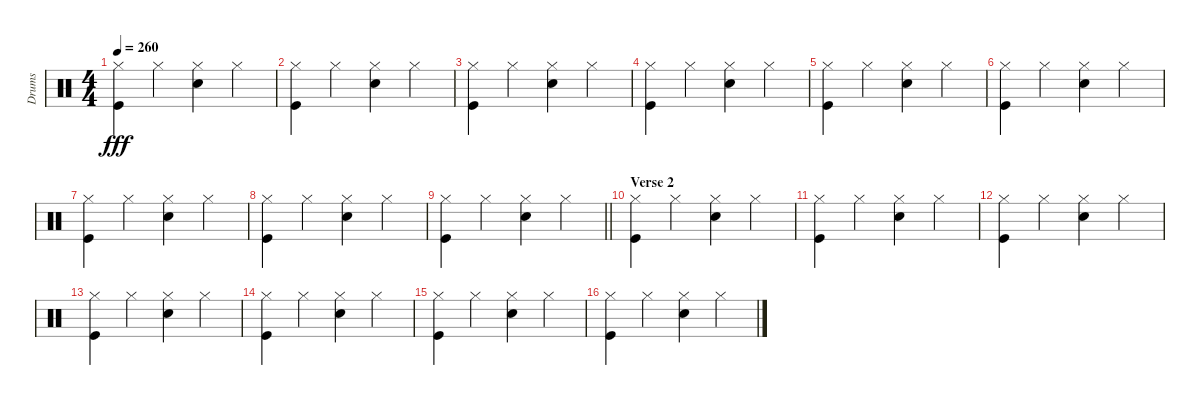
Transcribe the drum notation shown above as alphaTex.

\track ("Drums" "Drums") {instrument percussion}
\staff {score}
\articulation defaults
\ts (4 4)
\tempo 260
\clef neutral
\ks c
("Hi-Hat (closed)" "Kick (hit)").4{dy fff} "Hi-Hat (closed)".4 ("Hi-Hat (closed)" "Snare (hit) 2").4 "Hi-Hat (closed)".4 |
("Hi-Hat (closed)" "Kick (hit)").4 "Hi-Hat (closed)".4 ("Hi-Hat (closed)" "Snare (hit) 2").4 "Hi-Hat (closed)".4 |
("Hi-Hat (closed)" "Kick (hit)").4 "Hi-Hat (closed)".4 ("Hi-Hat (closed)" "Snare (hit) 2").4 "Hi-Hat (closed)".4 |
("Hi-Hat (closed)" "Kick (hit)").4 "Hi-Hat (closed)".4 ("Hi-Hat (closed)" "Snare (hit) 2").4 "Hi-Hat (closed)".4 |
("Hi-Hat (closed)" "Kick (hit)").4 "Hi-Hat (closed)".4 ("Hi-Hat (closed)" "Snare (hit) 2").4 "Hi-Hat (closed)".4 |
("Hi-Hat (closed)" "Kick (hit)").4 "Hi-Hat (closed)".4 ("Hi-Hat (closed)" "Snare (hit) 2").4 "Hi-Hat (closed)".4 |
("Hi-Hat (closed)" "Kick (hit)").4 "Hi-Hat (closed)".4 ("Hi-Hat (closed)" "Snare (hit) 2").4 "Hi-Hat (closed)".4 |
("Hi-Hat (closed)" "Kick (hit)").4 "Hi-Hat (closed)".4 ("Hi-Hat (closed)" "Snare (hit) 2").4 "Hi-Hat (closed)".4 |
\barLineRight lightlight
("Hi-Hat (closed)" "Kick (hit)").4 "Hi-Hat (closed)".4 ("Hi-Hat (closed)" "Snare (hit) 2").4 "Hi-Hat (closed)".4 |
\section ("" "Verse 2")
("Hi-Hat (closed)" "Kick (hit)").4 "Hi-Hat (closed)".4 ("Hi-Hat (closed)" "Snare (hit) 2").4 "Hi-Hat (closed)".4 |
("Hi-Hat (closed)" "Kick (hit)").4 "Hi-Hat (closed)".4 ("Hi-Hat (closed)" "Snare (hit) 2").4 "Hi-Hat (closed)".4 |
("Hi-Hat (closed)" "Kick (hit)").4 "Hi-Hat (closed)".4 ("Hi-Hat (closed)" "Snare (hit) 2").4 "Hi-Hat (closed)".4 |
("Hi-Hat (closed)" "Kick (hit)").4 "Hi-Hat (closed)".4 ("Hi-Hat (closed)" "Snare (hit) 2").4 "Hi-Hat (closed)".4 |
("Hi-Hat (closed)" "Kick (hit)").4 "Hi-Hat (closed)".4 ("Hi-Hat (closed)" "Snare (hit) 2").4 "Hi-Hat (closed)".4 |
("Hi-Hat (closed)" "Kick (hit)").4 "Hi-Hat (closed)".4 ("Hi-Hat (closed)" "Snare (hit) 2").4 "Hi-Hat (closed)".4 |
("Hi-Hat (closed)" "Kick (hit)").4 "Hi-Hat (closed)".4 ("Hi-Hat (closed)" "Snare (hit) 2").4 "Hi-Hat (closed)".4
